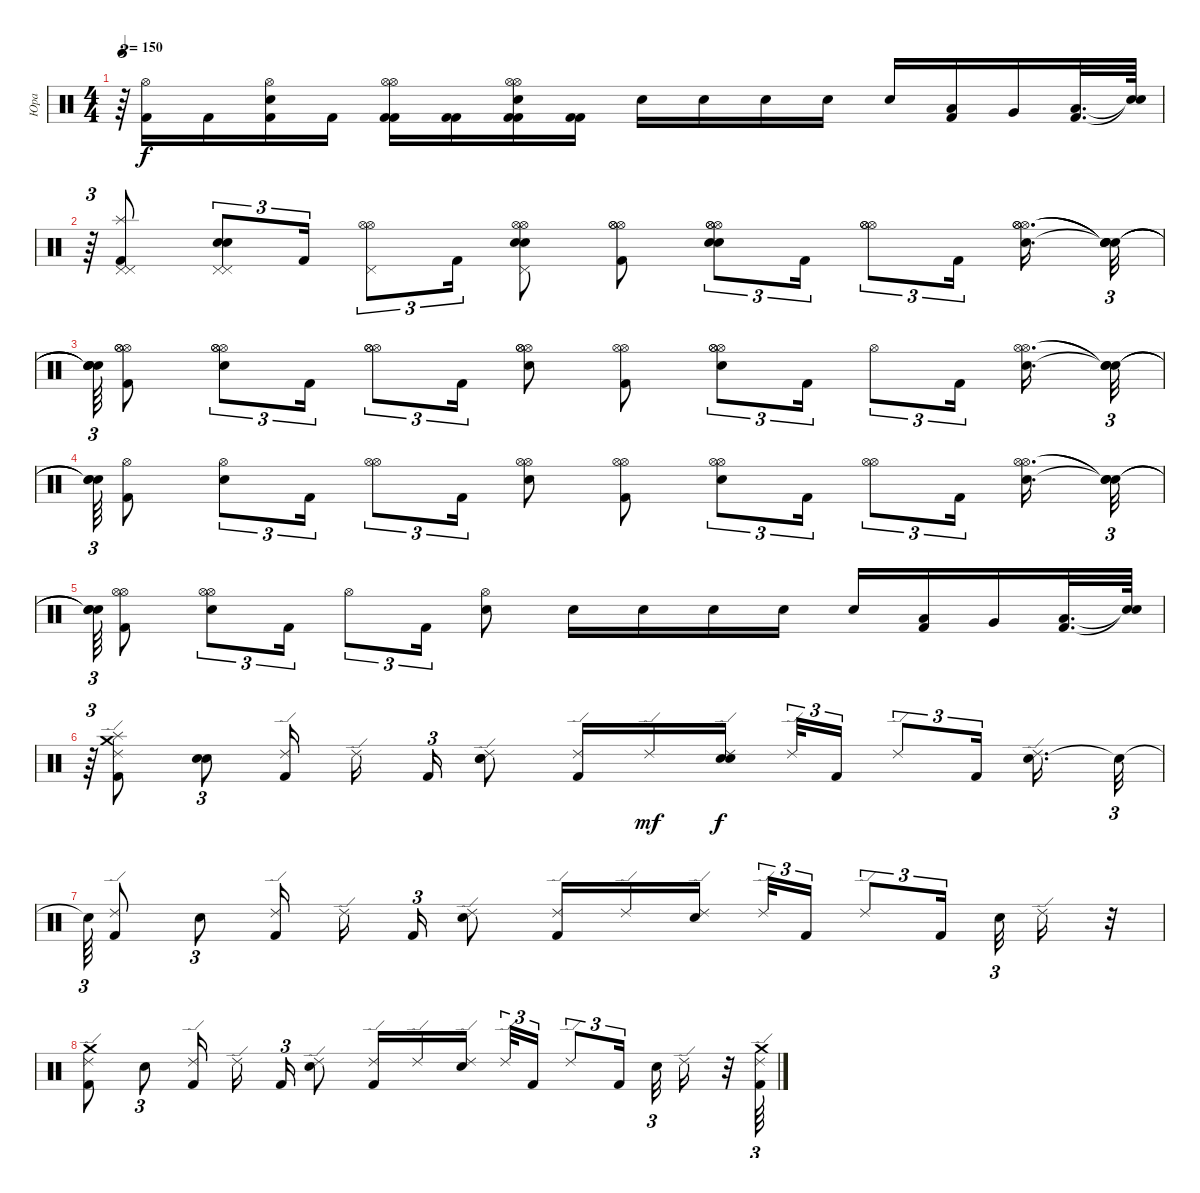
\track ("Юра" "Юра") {instrument percussion}
\staff {score}
\articulation defaults
\ts (4 4)
\tempo 150
\clef neutral
\ks c
r.64{tu (3 2) dy f} ("Kick (hit) 2" "Hi-Hat (open)").16 "Kick (hit) 2".16 ("Kick (hit) 2" "Electric Snare (hit)" "Hi-Hat (open)").16 "Kick (hit) 2".16 ("Hi-Hat (open)" "Hi-Hat (open)" "Kick (hit) 2" "Kick (hit) 2").16 ("Kick (hit) 2" "Kick (hit) 2").16 ("Kick (hit) 2" "Hi-Hat (open)" "Electric Snare (hit)" "Kick (hit) 2" "Hi-Hat (open)").16 ("Kick (hit) 2" "Kick (hit) 2").16 "Electric Snare (hit)".16 "Electric Snare (hit)".16 "Electric Snare (hit)".16 "Electric Snare (hit)".16 "Electric Snare (hit)".16 ("Kick (hit) 2" "Low Tom (hit)").16 "Very Low Tom (hit)".16 ("Low Floor Tom (hit)" "Kick (hit) 2").32{d} ("Snare (hit)"{t} "Snare (hit)"{t}).64 |
r.64{tu (3 2)} ("Kick (hit) 2" "Splash (hit)" "Pedal Hi-Hat (hit)" "Pedal Hi-Hat (hit)").8 ("Electric Snare (hit)" "Pedal Hi-Hat (hit)" "Pedal Hi-Hat (hit)" "Electric Snare (hit)").8{tu (3 2)} "Kick (hit) 2".16{tu (3 2)} ("Hi-Hat (open)" "Pedal Hi-Hat (hit)" "Hi-Hat (open)").8{tu (3 2)} "Kick (hit) 2".16{tu (3 2)} ("Hi-Hat (open)" "Pedal Hi-Hat (hit)" "Hi-Hat (open)" "Electric Snare (hit)" "Electric Snare (hit)").8 ("Kick (hit) 2" "Hi-Hat (open)" "Hi-Hat (open)" "Hi-Hat (open)").8 ("Hi-Hat (open)" "Hi-Hat (open)" "Hi-Hat (open)" "Electric Snare (hit)" "Electric Snare (hit)").8{tu (3 2)} "Kick (hit) 2".16{tu (3 2)} ("Hi-Hat (open)" "Hi-Hat (open)" "Hi-Hat (open)").8{tu (3 2)} "Kick (hit) 2".16{tu (3 2) beam splitsecondary} ("Hi-Hat (open)" "Electric Snare (hit)" "Hi-Hat (open)" "Hi-Hat (open)").16{d} ("Snare (hit)"{t} "Snare (hit)"{t} "Snare (hit)"{t} "Snare (hit)"{t}).32{tu (3 2)} |
("Snare (hit)"{t} "Snare (hit)"{t} "Snare (hit)"{t} "Snare (hit)"{t}).64{tu (3 2)} ("Kick (hit) 2" "Hi-Hat (open)" "Hi-Hat (open)" "Hi-Hat (open)").8 ("Hi-Hat (open)" "Hi-Hat (open)" "Hi-Hat (open)" "Electric Snare (hit)").8{tu (3 2)} "Kick (hit) 2".16{tu (3 2)} ("Hi-Hat (open)" "Hi-Hat (open)" "Hi-Hat (open)").8{tu (3 2)} "Kick (hit) 2".16{tu (3 2)} ("Hi-Hat (open)" "Hi-Hat (open)" "Hi-Hat (open)" "Electric Snare (hit)").8 ("Kick (hit) 2" "Hi-Hat (open)" "Hi-Hat (open)").8 ("Electric Snare (hit)" "Hi-Hat (open)" "Hi-Hat (open)" "Hi-Hat (open)").8{tu (3 2)} "Kick (hit) 2".16{tu (3 2)} "Hi-Hat (open)".8{tu (3 2)} "Kick (hit) 2".16{tu (3 2) beam splitsecondary} ("Hi-Hat (open)" "Hi-Hat (open)" "Electric Snare (hit)").16{d} ("Snare (hit)"{t} "Snare (hit)"{t} "Snare (hit)"{t}).32{tu (3 2)} |
("Snare (hit)"{t} "Snare (hit)"{t} "Snare (hit)"{t}).64{tu (3 2)} ("Kick (hit) 2" "Hi-Hat (open)").8 ("Electric Snare (hit)" "Hi-Hat (open)").8{tu (3 2)} "Kick (hit) 2".16{tu (3 2)} ("Hi-Hat (open)" "Hi-Hat (open)").8{tu (3 2)} "Kick (hit) 2".16{tu (3 2)} ("Hi-Hat (open)" "Electric Snare (hit)" "Hi-Hat (open)").8 ("Kick (hit) 2" "Hi-Hat (open)" "Hi-Hat (open)").8 ("Hi-Hat (open)" "Hi-Hat (open)" "Electric Snare (hit)").8{tu (3 2)} "Kick (hit) 2".16{tu (3 2)} ("Hi-Hat (open)" "Hi-Hat (open)").8{tu (3 2)} "Kick (hit) 2".16{tu (3 2) beam splitsecondary} ("Hi-Hat (open)" "Electric Snare (hit)" "Hi-Hat (open)").16{d} ("Snare (hit)"{t} "Snare (hit)"{t} "Snare (hit)"{t}).32{tu (3 2)} |
("Snare (hit)"{t} "Snare (hit)"{t} "Snare (hit)"{t}).64{tu (3 2)} ("Kick (hit) 2" "Hi-Hat (open)" "Hi-Hat (open)").8 ("Electric Snare (hit)" "Hi-Hat (open)" "Hi-Hat (open)").8{tu (3 2)} "Kick (hit) 2".16{tu (3 2)} "Hi-Hat (open)".8{tu (3 2)} "Kick (hit) 2".16{tu (3 2)} ("Electric Snare (hit)" "Hi-Hat (open)").8 "Electric Snare (hit)".16 "Electric Snare (hit)".16 "Electric Snare (hit)".16 "Electric Snare (hit)".16 "Electric Snare (hit)".16 ("Kick (hit) 2" "Low Tom (hit)").16 "Very Low Tom (hit)".16 ("Low Floor Tom (hit)" "Kick (hit) 2").32{d} ("Snare (hit)"{t} "Snare (hit)"{t}).64 |
r.64{tu (3 2)} ("Ride (edge) 2" "Crash medium (hit)" "Kick (hit) 2" "Splash (hit)").8 ("Electric Snare (hit)" "Electric Snare (hit)").8{tu (3 2)} ("Ride (edge) 2" "Kick (hit) 2").16 "Ride (edge) 2".16{beam splitsecondary} "Kick (hit) 2".16{tu (3 2)} ("Ride (edge) 2" "Electric Snare (hit)" "Electric Snare (hit)").8 ("Ride (edge) 2" "Kick (hit) 2").16 "Ride (edge) 2".16{dy mf} ("Ride (edge) 2" "Electric Snare (hit)" "Electric Snare (hit)").16{dy f beam splitsecondary} "Ride (edge) 2".32{tu (3 2)} "Kick (hit) 2".16{tu (3 2)} "Ride (edge) 2".8{tu (3 2)} "Kick (hit) 2".16{tu (3 2) beam splitsecondary} ("Electric Snare (hit)" "Ride (edge) 2").16{d} "Snare (hit)"{t}.32{tu (3 2)} |
"Snare (hit)"{t}.64{tu (3 2)} ("Ride (edge) 2" "Kick (hit) 2").8 "Electric Snare (hit)".8{tu (3 2)} ("Ride (edge) 2" "Kick (hit) 2").16 "Ride (edge) 2".16{beam splitsecondary} "Kick (hit) 2".16{tu (3 2)} ("Ride (edge) 2" "Electric Snare (hit)").8 ("Ride (edge) 2" "Kick (hit) 2").16 "Ride (edge) 2".16 ("Ride (edge) 2" "Electric Snare (hit)").16{beam splitsecondary} "Ride (edge) 2".32{tu (3 2)} "Kick (hit) 2".16{tu (3 2)} "Ride (edge) 2".8{tu (3 2)} "Kick (hit) 2".16{tu (3 2) beam splitsecondary} "Electric Snare (hit)".32{tu (3 2)} "Ride (edge) 2".16 r.32 |
("Ride (edge) 2" "Crash medium (hit)" "Kick (hit) 2").8 "Electric Snare (hit)".8{tu (3 2)} ("Kick (hit) 2" "Ride (edge) 2").16 "Ride (edge) 2".16{beam splitsecondary} "Kick (hit) 2".16{tu (3 2)} ("Ride (edge) 2" "Electric Snare (hit)").8 ("Ride (edge) 2" "Kick (hit) 2").16 "Ride (edge) 2".16 ("Ride (edge) 2" "Electric Snare (hit)").16{beam splitsecondary} "Ride (edge) 2".32{tu (3 2)} "Kick (hit) 2".16{tu (3 2)} "Ride (edge) 2".8{tu (3 2)} "Kick (hit) 2".16{tu (3 2) beam splitsecondary} "Electric Snare (hit)".32{tu (3 2)} "Ride (edge) 2".16 r.32 ("Ride (edge) 2" "Crash medium (hit)" "Kick (hit) 2").64{tu (3 2)}
